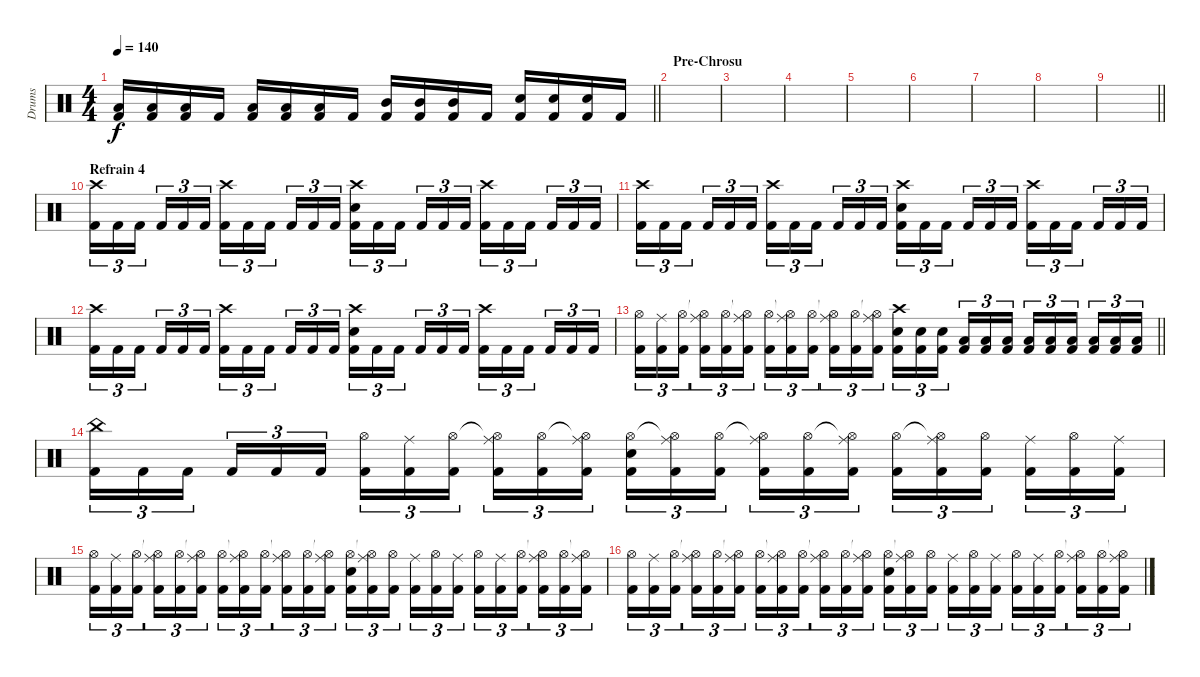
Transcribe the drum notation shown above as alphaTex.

\track ("Drums" "Drums") {instrument percussion}
\staff {score}
\articulation defaults
\ts (4 4)
\tempo 140
\clef neutral
\barLineRight lightlight
\ks c
("Low Floor Tom (hit)" "Kick (hit) 2").16{dy f} ("Low Floor Tom (hit)" "Kick (hit) 2").16 ("Low Floor Tom (hit)" "Kick (hit) 2").16 "Kick (hit) 2".16 ("Low Tom (hit)" "Kick (hit) 2").16 ("Low Tom (hit)" "Kick (hit) 2").16 ("Low Tom (hit)" "Kick (hit) 2").16 "Kick (hit) 2".16 ("Mid Tom (hit)" "Kick (hit) 2").16 ("Mid Tom (hit)" "Kick (hit) 2").16 ("Mid Tom (hit)" "Kick (hit) 2").16 "Kick (hit) 2".16 ("Snare (hit) 2" "Kick (hit) 2").16 ("Snare (hit) 2" "Kick (hit) 2").16 ("Snare (hit) 2" "Kick (hit) 2").16 "Kick (hit) 2".16 |
\section ("" "Pre-Chrosu")
|
|
|
|
|
|
|
\barLineRight lightlight
|
\section ("" "Refrain 4")
("Crash high (hit)" "Kick (hit) 2").16{tu (3 2)} "Kick (hit) 2".16{tu (3 2)} "Kick (hit) 2".16{tu (3 2) beam splitsecondary} "Kick (hit) 2".16{tu (3 2)} "Kick (hit) 2".16{tu (3 2)} "Kick (hit) 2".16{tu (3 2)} ("Crash high (hit)" "Kick (hit) 2").16{tu (3 2)} "Kick (hit) 2".16{tu (3 2)} "Kick (hit) 2".16{tu (3 2) beam splitsecondary} "Kick (hit) 2".16{tu (3 2)} "Kick (hit) 2".16{tu (3 2)} "Kick (hit) 2".16{tu (3 2)} ("Crash high (hit)" "Snare (hit) 2" "Kick (hit) 2").16{tu (3 2)} "Kick (hit) 2".16{tu (3 2)} "Kick (hit) 2".16{tu (3 2) beam splitsecondary} "Kick (hit) 2".16{tu (3 2)} "Kick (hit) 2".16{tu (3 2)} "Kick (hit) 2".16{tu (3 2)} ("Crash high (hit)" "Kick (hit) 2").16{tu (3 2)} "Kick (hit) 2".16{tu (3 2)} "Kick (hit) 2".16{tu (3 2) beam splitsecondary} "Kick (hit) 2".16{tu (3 2)} "Kick (hit) 2".16{tu (3 2)} "Kick (hit) 2".16{tu (3 2)} |
("Crash high (hit)" "Kick (hit) 2").16{tu (3 2)} "Kick (hit) 2".16{tu (3 2)} "Kick (hit) 2".16{tu (3 2) beam splitsecondary} "Kick (hit) 2".16{tu (3 2)} "Kick (hit) 2".16{tu (3 2)} "Kick (hit) 2".16{tu (3 2)} ("Crash high (hit)" "Kick (hit) 2").16{tu (3 2)} "Kick (hit) 2".16{tu (3 2)} "Kick (hit) 2".16{tu (3 2) beam splitsecondary} "Kick (hit) 2".16{tu (3 2)} "Kick (hit) 2".16{tu (3 2)} "Kick (hit) 2".16{tu (3 2)} ("Crash high (hit)" "Snare (hit) 2" "Kick (hit) 2").16{tu (3 2)} "Kick (hit) 2".16{tu (3 2)} "Kick (hit) 2".16{tu (3 2) beam splitsecondary} "Kick (hit) 2".16{tu (3 2)} "Kick (hit) 2".16{tu (3 2)} "Kick (hit) 2".16{tu (3 2)} ("Crash high (hit)" "Kick (hit) 2").16{tu (3 2)} "Kick (hit) 2".16{tu (3 2)} "Kick (hit) 2".16{tu (3 2) beam splitsecondary} "Kick (hit) 2".16{tu (3 2)} "Kick (hit) 2".16{tu (3 2)} "Kick (hit) 2".16{tu (3 2)} |
("Crash high (hit)" "Kick (hit) 2").16{tu (3 2)} "Kick (hit) 2".16{tu (3 2)} "Kick (hit) 2".16{tu (3 2) beam splitsecondary} "Kick (hit) 2".16{tu (3 2)} "Kick (hit) 2".16{tu (3 2)} "Kick (hit) 2".16{tu (3 2)} ("Crash high (hit)" "Kick (hit) 2").16{tu (3 2)} "Kick (hit) 2".16{tu (3 2)} "Kick (hit) 2".16{tu (3 2) beam splitsecondary} "Kick (hit) 2".16{tu (3 2)} "Kick (hit) 2".16{tu (3 2)} "Kick (hit) 2".16{tu (3 2)} ("Crash high (hit)" "Snare (hit) 2" "Kick (hit) 2").16{tu (3 2)} "Kick (hit) 2".16{tu (3 2)} "Kick (hit) 2".16{tu (3 2) beam splitsecondary} "Kick (hit) 2".16{tu (3 2)} "Kick (hit) 2".16{tu (3 2)} "Kick (hit) 2".16{tu (3 2)} ("Crash high (hit)" "Kick (hit) 2").16{tu (3 2)} "Kick (hit) 2".16{tu (3 2)} "Kick (hit) 2".16{tu (3 2) beam splitsecondary} "Kick (hit) 2".16{tu (3 2)} "Kick (hit) 2".16{tu (3 2)} "Kick (hit) 2".16{tu (3 2)} |
\barLineRight lightlight
("Hi-Hat (open)" "Kick (hit) 2").16{tu (3 2)} ("Ride (middle)" "Kick (hit) 2").16{tu (3 2)} ("Hi-Hat (open)" "Kick (hit) 2").16{tu (3 2) beam splitsecondary} ("Hi-Hat (open)"{t} "Ride (middle)" "Kick (hit) 2").16{tu (3 2)} ("Hi-Hat (open)" "Kick (hit) 2").16{tu (3 2)} ("Hi-Hat (open)"{t} "Ride (middle)" "Kick (hit) 2").16{tu (3 2)} ("Hi-Hat (open)" "Kick (hit) 2").16{tu (3 2)} ("Hi-Hat (open)"{t} "Ride (middle)" "Kick (hit) 2").16{tu (3 2)} ("Hi-Hat (open)" "Kick (hit) 2").16{tu (3 2) beam splitsecondary} ("Hi-Hat (open)"{t} "Ride (middle)" "Kick (hit) 2").16{tu (3 2)} ("Hi-Hat (open)" "Kick (hit) 2").16{tu (3 2)} ("Hi-Hat (open)"{t} "Ride (middle)" "Kick (hit) 2").16{tu (3 2)} ("Crash high (hit)" "Snare (hit) 2" "Kick (hit) 2").16{tu (3 2)} ("Snare (hit) 2" "Kick (hit) 2").16{tu (3 2)} ("Snare (hit) 2" "Kick (hit) 2").16{tu (3 2) beam splitsecondary} ("Low Floor Tom (hit)" "Kick (hit) 2").16{tu (3 2)} ("Low Floor Tom (hit)" "Kick (hit) 2").16{tu (3 2)} ("Low Floor Tom (hit)" "Kick (hit) 2").16{tu (3 2)} ("Low Tom (hit)" "Kick (hit) 2").16{tu (3 2)} ("Low Tom (hit)" "Kick (hit) 2").16{tu (3 2)} ("Low Tom (hit)" "Kick (hit) 2").16{tu (3 2) beam splitsecondary} ("Low Floor Tom (hit)" "Kick (hit) 2").16{tu (3 2)} ("Low Floor Tom (hit)" "Kick (hit) 2").16{tu (3 2)} ("Low Floor Tom (hit)" "Kick (hit) 2").16{tu (3 2)} |
("China (hit)" "Kick (hit) 2").16{tu (3 2)} "Kick (hit) 2".16{tu (3 2)} "Kick (hit) 2".16{tu (3 2) beam splitsecondary} "Kick (hit) 2".16{tu (3 2)} "Kick (hit) 2".16{tu (3 2)} "Kick (hit) 2".16{tu (3 2)} ("Hi-Hat (open)" "Kick (hit) 2").16{tu (3 2)} ("Ride (middle)" "Kick (hit) 2").16{tu (3 2)} ("Hi-Hat (open)" "Kick (hit) 2").16{tu (3 2) beam splitsecondary} ("Hi-Hat (open)"{t} "Ride (middle)" "Kick (hit) 2").16{tu (3 2)} ("Hi-Hat (open)" "Kick (hit) 2").16{tu (3 2)} ("Hi-Hat (open)"{t} "Ride (middle)" "Kick (hit) 2").16{tu (3 2)} ("Hi-Hat (open)" "Snare (hit) 2" "Kick (hit) 2").16{tu (3 2)} ("Hi-Hat (open)"{t} "Ride (middle)" "Kick (hit) 2").16{tu (3 2)} ("Hi-Hat (open)" "Kick (hit) 2").16{tu (3 2) beam splitsecondary} ("Hi-Hat (open)"{t} "Ride (middle)" "Kick (hit) 2").16{tu (3 2)} ("Hi-Hat (open)" "Kick (hit) 2").16{tu (3 2)} ("Hi-Hat (open)"{t} "Ride (middle)" "Kick (hit) 2").16{tu (3 2)} ("Hi-Hat (open)" "Kick (hit) 2").16{tu (3 2)} ("Hi-Hat (open)"{t} "Ride (middle)" "Kick (hit) 2").16{tu (3 2)} ("Hi-Hat (open)" "Kick (hit) 2").16{tu (3 2) beam splitsecondary} ("Ride (middle)" "Kick (hit) 2").16{tu (3 2)} ("Hi-Hat (open)" "Kick (hit) 2").16{tu (3 2)} ("Ride (middle)" "Kick (hit) 2").16{tu (3 2)} |
("Hi-Hat (open)" "Kick (hit) 2").16{tu (3 2)} ("Ride (middle)" "Kick (hit) 2").16{tu (3 2)} ("Hi-Hat (open)" "Kick (hit) 2").16{tu (3 2) beam splitsecondary} ("Hi-Hat (open)"{t} "Ride (middle)" "Kick (hit) 2").16{tu (3 2)} ("Hi-Hat (open)" "Kick (hit) 2").16{tu (3 2)} ("Hi-Hat (open)"{t} "Ride (middle)" "Kick (hit) 2").16{tu (3 2)} ("Hi-Hat (open)" "Kick (hit) 2").16{tu (3 2)} ("Hi-Hat (open)"{t} "Ride (middle)" "Kick (hit) 2").16{tu (3 2)} ("Hi-Hat (open)" "Kick (hit) 2").16{tu (3 2) beam splitsecondary} ("Hi-Hat (open)"{t} "Ride (middle)" "Kick (hit) 2").16{tu (3 2)} ("Hi-Hat (open)" "Kick (hit) 2").16{tu (3 2)} ("Hi-Hat (open)"{t} "Ride (middle)" "Kick (hit) 2").16{tu (3 2)} ("Hi-Hat (open)" "Snare (hit) 2" "Kick (hit) 2").16{tu (3 2)} ("Hi-Hat (open)"{t} "Ride (middle)" "Kick (hit) 2").16{tu (3 2)} ("Hi-Hat (open)" "Kick (hit) 2").16{tu (3 2) beam splitsecondary} ("Ride (middle)" "Kick (hit) 2").16{tu (3 2)} ("Hi-Hat (open)" "Kick (hit) 2").16{tu (3 2)} ("Ride (middle)" "Kick (hit) 2").16{tu (3 2)} ("Hi-Hat (open)" "Kick (hit) 2").16{tu (3 2)} ("Ride (middle)" "Kick (hit) 2").16{tu (3 2)} ("Hi-Hat (open)" "Kick (hit) 2").16{tu (3 2) beam splitsecondary} ("Hi-Hat (open)"{t} "Ride (middle)" "Kick (hit) 2").16{tu (3 2)} ("Hi-Hat (open)" "Kick (hit) 2").16{tu (3 2)} ("Hi-Hat (open)"{t} "Ride (middle)" "Kick (hit) 2").16{tu (3 2)} |
("Hi-Hat (open)" "Kick (hit) 2").16{tu (3 2)} ("Ride (middle)" "Kick (hit) 2").16{tu (3 2)} ("Hi-Hat (open)" "Kick (hit) 2").16{tu (3 2) beam splitsecondary} ("Hi-Hat (open)"{t} "Ride (middle)" "Kick (hit) 2").16{tu (3 2)} ("Hi-Hat (open)" "Kick (hit) 2").16{tu (3 2)} ("Hi-Hat (open)"{t} "Ride (middle)" "Kick (hit) 2").16{tu (3 2)} ("Hi-Hat (open)" "Kick (hit) 2").16{tu (3 2)} ("Hi-Hat (open)"{t} "Ride (middle)" "Kick (hit) 2").16{tu (3 2)} ("Hi-Hat (open)" "Kick (hit) 2").16{tu (3 2) beam splitsecondary} ("Hi-Hat (open)"{t} "Ride (middle)" "Kick (hit) 2").16{tu (3 2)} ("Hi-Hat (open)" "Kick (hit) 2").16{tu (3 2)} ("Hi-Hat (open)"{t} "Ride (middle)" "Kick (hit) 2").16{tu (3 2)} ("Hi-Hat (open)" "Snare (hit) 2" "Kick (hit) 2").16{tu (3 2)} ("Hi-Hat (open)"{t} "Ride (middle)" "Kick (hit) 2").16{tu (3 2)} ("Hi-Hat (open)" "Kick (hit) 2").16{tu (3 2) beam splitsecondary} ("Ride (middle)" "Kick (hit) 2").16{tu (3 2)} ("Hi-Hat (open)" "Kick (hit) 2").16{tu (3 2)} ("Ride (middle)" "Kick (hit) 2").16{tu (3 2)} ("Hi-Hat (open)" "Kick (hit) 2").16{tu (3 2)} ("Ride (middle)" "Kick (hit) 2").16{tu (3 2)} ("Hi-Hat (open)" "Kick (hit) 2").16{tu (3 2) beam splitsecondary} ("Hi-Hat (open)"{t} "Ride (middle)" "Kick (hit) 2").16{tu (3 2)} ("Hi-Hat (open)" "Kick (hit) 2").16{tu (3 2)} ("Hi-Hat (open)"{t} "Ride (middle)" "Kick (hit) 2").16{tu (3 2)}
